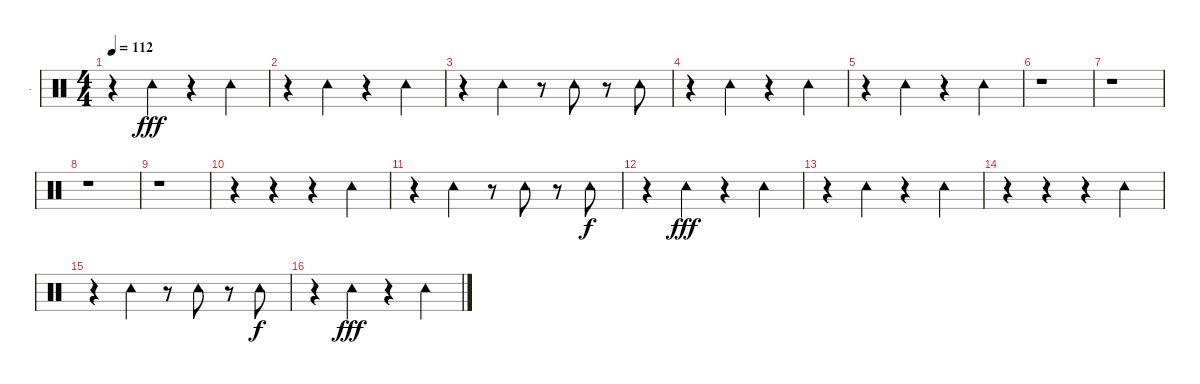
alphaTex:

\track ("." ".") {instrument percussion}
\staff {score}
\articulation defaults
\ts (4 4)
\tempo 112
\clef neutral
\ks c
r.4{dy fff} "Tambourine (hit)".4 r.4 "Tambourine (hit)".4 |
r.4 "Tambourine (hit)".4 r.4 "Tambourine (hit)".4 |
r.4 "Tambourine (hit)".4 r.8 "Tambourine (hit)".8 r.8 "Tambourine (hit)".8 |
r.4 "Tambourine (hit)".4 r.4 "Tambourine (hit)".4 |
r.4 "Tambourine (hit)".4 r.4 "Tambourine (hit)".4 |
r.1 |
r.1 |
r.1 |
r.1 |
r.4 r.4 r.4 "Tambourine (hit)".4 |
r.4 "Tambourine (hit)".4 r.8 "Tambourine (hit)".8 r.8 "Tambourine (hit)".8{dy f} |
r.4 "Tambourine (hit)".4{dy fff} r.4 "Tambourine (hit)".4 |
r.4 "Tambourine (hit)".4 r.4 "Tambourine (hit)".4 |
r.4 r.4 r.4 "Tambourine (hit)".4 |
r.4 "Tambourine (hit)".4 r.8 "Tambourine (hit)".8 r.8 "Tambourine (hit)".8{dy f} |
r.4 "Tambourine (hit)".4{dy fff} r.4 "Tambourine (hit)".4
